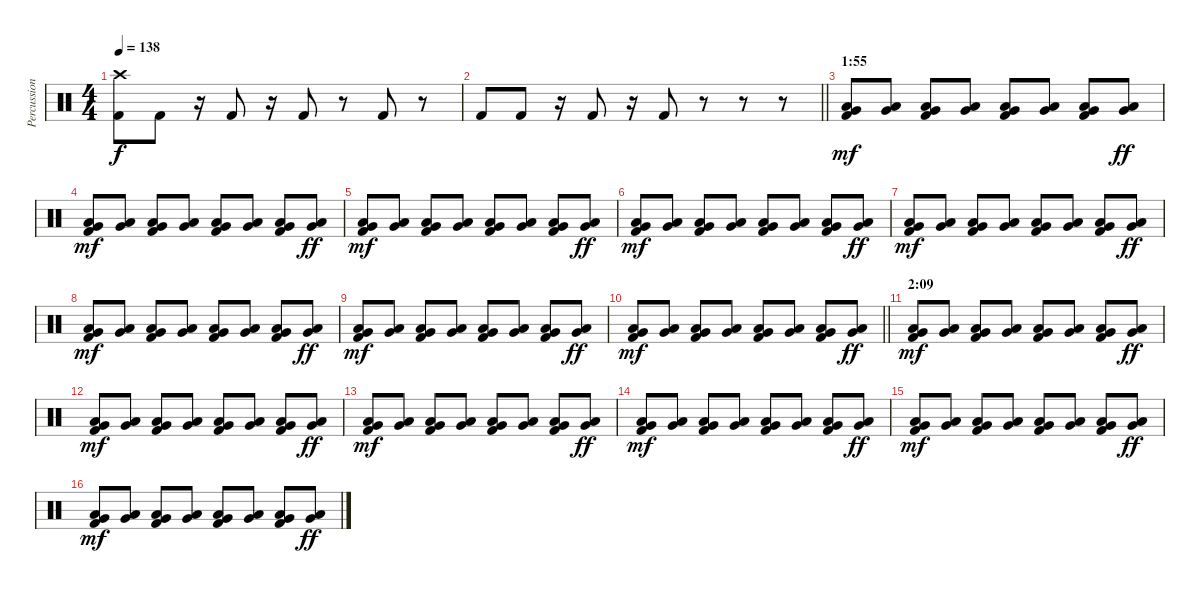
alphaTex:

\track ("Percussion" "Percussion") {instrument percussion}
\staff {score}
\articulation defaults
\ts (4 4)
\tempo 138
\clef neutral
\ks c
("Crash high (hit)" "Kick (hit) 2").8{dy f} "Kick (hit) 2".8 r.16 "Kick (hit) 2".8 r.16 "Kick (hit) 2".8 r.8 "Kick (hit) 2".8 r.8 |
\barLineRight lightlight "Kick (hit) 2".8 "Kick (hit) 2".8
r.16 "Kick (hit) 2".8 r.16 "Kick (hit) 2".8 r.8 r.8 r.8 |
\section ("" "1:55")
("Very Low Tom (hit)" "Low Floor Tom (hit)" "Kick (hit) 2").8{dy mf volume 6} ("Very Low Tom (hit)" "Low Floor Tom (hit)").8{volume 7} ("Very Low Tom (hit)" "Low Floor Tom (hit)" "Kick (hit) 2").8 ("Very Low Tom (hit)" "Low Floor Tom (hit)").8 ("Very Low Tom (hit)" "Low Floor Tom (hit)" "Kick (hit) 2").8 ("Very Low Tom (hit)" "Low Floor Tom (hit)").8 ("Very Low Tom (hit)" "Low Floor Tom (hit)" "Kick (hit) 2").8 ("Very Low Tom (hit)" "Low Floor Tom (hit)").8{dy ff} |
("Very Low Tom (hit)" "Low Floor Tom (hit)" "Kick (hit) 2").8{dy mf} ("Very Low Tom (hit)" "Low Floor Tom (hit)").8 ("Very Low Tom (hit)" "Low Floor Tom (hit)" "Kick (hit) 2").8 ("Very Low Tom (hit)" "Low Floor Tom (hit)").8 ("Very Low Tom (hit)" "Low Floor Tom (hit)" "Kick (hit) 2").8 ("Very Low Tom (hit)" "Low Floor Tom (hit)").8 ("Very Low Tom (hit)" "Low Floor Tom (hit)" "Kick (hit) 2").8 ("Very Low Tom (hit)" "Low Floor Tom (hit)").8{dy ff} |
("Very Low Tom (hit)" "Low Floor Tom (hit)" "Kick (hit) 2").8{dy mf} ("Very Low Tom (hit)" "Low Floor Tom (hit)").8 ("Very Low Tom (hit)" "Low Floor Tom (hit)" "Kick (hit) 2").8 ("Very Low Tom (hit)" "Low Floor Tom (hit)").8 ("Very Low Tom (hit)" "Low Floor Tom (hit)" "Kick (hit) 2").8 ("Very Low Tom (hit)" "Low Floor Tom (hit)").8 ("Very Low Tom (hit)" "Low Floor Tom (hit)" "Kick (hit) 2").8 ("Very Low Tom (hit)" "Low Floor Tom (hit)").8{dy ff} |
("Very Low Tom (hit)" "Low Floor Tom (hit)" "Kick (hit) 2").8{dy mf} ("Very Low Tom (hit)" "Low Floor Tom (hit)").8 ("Very Low Tom (hit)" "Low Floor Tom (hit)" "Kick (hit) 2").8 ("Very Low Tom (hit)" "Low Floor Tom (hit)").8 ("Very Low Tom (hit)" "Low Floor Tom (hit)" "Kick (hit) 2").8 ("Very Low Tom (hit)" "Low Floor Tom (hit)").8 ("Very Low Tom (hit)" "Low Floor Tom (hit)" "Kick (hit) 2").8 ("Very Low Tom (hit)" "Low Floor Tom (hit)").8{dy ff} |
("Very Low Tom (hit)" "Low Floor Tom (hit)" "Kick (hit) 2").8{dy mf} ("Very Low Tom (hit)" "Low Floor Tom (hit)").8 ("Very Low Tom (hit)" "Low Floor Tom (hit)" "Kick (hit) 2").8{volume 9} ("Very Low Tom (hit)" "Low Floor Tom (hit)").8 ("Very Low Tom (hit)" "Low Floor Tom (hit)" "Kick (hit) 2").8 ("Very Low Tom (hit)" "Low Floor Tom (hit)").8 ("Very Low Tom (hit)" "Low Floor Tom (hit)" "Kick (hit) 2").8 ("Very Low Tom (hit)" "Low Floor Tom (hit)").8{dy ff} |
("Very Low Tom (hit)" "Low Floor Tom (hit)" "Kick (hit) 2").8{dy mf} ("Very Low Tom (hit)" "Low Floor Tom (hit)").8 ("Very Low Tom (hit)" "Low Floor Tom (hit)" "Kick (hit) 2").8 ("Very Low Tom (hit)" "Low Floor Tom (hit)").8 ("Very Low Tom (hit)" "Low Floor Tom (hit)" "Kick (hit) 2").8 ("Very Low Tom (hit)" "Low Floor Tom (hit)").8 ("Very Low Tom (hit)" "Low Floor Tom (hit)" "Kick (hit) 2").8 ("Very Low Tom (hit)" "Low Floor Tom (hit)").8{dy ff} |
("Very Low Tom (hit)" "Low Floor Tom (hit)" "Kick (hit) 2").8{dy mf} ("Very Low Tom (hit)" "Low Floor Tom (hit)").8 ("Very Low Tom (hit)" "Low Floor Tom (hit)" "Kick (hit) 2").8 ("Very Low Tom (hit)" "Low Floor Tom (hit)").8 ("Very Low Tom (hit)" "Low Floor Tom (hit)" "Kick (hit) 2").8 ("Very Low Tom (hit)" "Low Floor Tom (hit)").8 ("Very Low Tom (hit)" "Low Floor Tom (hit)" "Kick (hit) 2").8 ("Very Low Tom (hit)" "Low Floor Tom (hit)").8{dy ff} |
\barLineRight lightlight
("Very Low Tom (hit)" "Low Floor Tom (hit)" "Kick (hit) 2").8{dy mf} ("Very Low Tom (hit)" "Low Floor Tom (hit)").8 ("Very Low Tom (hit)" "Low Floor Tom (hit)" "Kick (hit) 2").8 ("Very Low Tom (hit)" "Low Floor Tom (hit)").8 ("Very Low Tom (hit)" "Low Floor Tom (hit)" "Kick (hit) 2").8 ("Very Low Tom (hit)" "Low Floor Tom (hit)").8 ("Very Low Tom (hit)" "Low Floor Tom (hit)" "Kick (hit) 2").8 ("Very Low Tom (hit)" "Low Floor Tom (hit)").8{dy ff} |
\section ("" "2:09")
("Very Low Tom (hit)" "Low Floor Tom (hit)" "Kick (hit) 2").8{dy mf} ("Very Low Tom (hit)" "Low Floor Tom (hit)").8 ("Very Low Tom (hit)" "Low Floor Tom (hit)" "Kick (hit) 2").8 ("Very Low Tom (hit)" "Low Floor Tom (hit)").8{volume 12} ("Very Low Tom (hit)" "Low Floor Tom (hit)" "Kick (hit) 2").8 ("Very Low Tom (hit)" "Low Floor Tom (hit)").8 ("Very Low Tom (hit)" "Low Floor Tom (hit)" "Kick (hit) 2").8 ("Very Low Tom (hit)" "Low Floor Tom (hit)").8{dy ff} |
("Very Low Tom (hit)" "Low Floor Tom (hit)" "Kick (hit) 2").8{dy mf} ("Very Low Tom (hit)" "Low Floor Tom (hit)").8 ("Very Low Tom (hit)" "Low Floor Tom (hit)" "Kick (hit) 2").8 ("Very Low Tom (hit)" "Low Floor Tom (hit)").8 ("Very Low Tom (hit)" "Low Floor Tom (hit)" "Kick (hit) 2").8 ("Very Low Tom (hit)" "Low Floor Tom (hit)").8 ("Very Low Tom (hit)" "Low Floor Tom (hit)" "Kick (hit) 2").8 ("Very Low Tom (hit)" "Low Floor Tom (hit)").8{dy ff} |
("Very Low Tom (hit)" "Low Floor Tom (hit)" "Kick (hit) 2").8{dy mf} ("Very Low Tom (hit)" "Low Floor Tom (hit)").8 ("Very Low Tom (hit)" "Low Floor Tom (hit)" "Kick (hit) 2").8 ("Very Low Tom (hit)" "Low Floor Tom (hit)").8 ("Very Low Tom (hit)" "Low Floor Tom (hit)" "Kick (hit) 2").8 ("Very Low Tom (hit)" "Low Floor Tom (hit)").8 ("Very Low Tom (hit)" "Low Floor Tom (hit)" "Kick (hit) 2").8 ("Very Low Tom (hit)" "Low Floor Tom (hit)").8{dy ff} |
("Very Low Tom (hit)" "Low Floor Tom (hit)" "Kick (hit) 2").8{dy mf} ("Very Low Tom (hit)" "Low Floor Tom (hit)").8 ("Very Low Tom (hit)" "Low Floor Tom (hit)" "Kick (hit) 2").8 ("Very Low Tom (hit)" "Low Floor Tom (hit)").8 ("Very Low Tom (hit)" "Low Floor Tom (hit)" "Kick (hit) 2").8 ("Very Low Tom (hit)" "Low Floor Tom (hit)").8 ("Very Low Tom (hit)" "Low Floor Tom (hit)" "Kick (hit) 2").8 ("Very Low Tom (hit)" "Low Floor Tom (hit)").8{dy ff} |
("Very Low Tom (hit)" "Low Floor Tom (hit)" "Kick (hit) 2").8{dy mf} ("Very Low Tom (hit)" "Low Floor Tom (hit)").8 ("Very Low Tom (hit)" "Low Floor Tom (hit)" "Kick (hit) 2").8 ("Very Low Tom (hit)" "Low Floor Tom (hit)").8 ("Very Low Tom (hit)" "Low Floor Tom (hit)" "Kick (hit) 2").8 ("Very Low Tom (hit)" "Low Floor Tom (hit)").8 ("Very Low Tom (hit)" "Low Floor Tom (hit)" "Kick (hit) 2").8 ("Very Low Tom (hit)" "Low Floor Tom (hit)").8{dy ff} |
("Very Low Tom (hit)" "Low Floor Tom (hit)" "Kick (hit) 2").8{dy mf} ("Very Low Tom (hit)" "Low Floor Tom (hit)").8 ("Very Low Tom (hit)" "Low Floor Tom (hit)" "Kick (hit) 2").8 ("Very Low Tom (hit)" "Low Floor Tom (hit)").8 ("Very Low Tom (hit)" "Low Floor Tom (hit)" "Kick (hit) 2").8 ("Very Low Tom (hit)" "Low Floor Tom (hit)").8 ("Very Low Tom (hit)" "Low Floor Tom (hit)" "Kick (hit) 2").8 ("Very Low Tom (hit)" "Low Floor Tom (hit)").8{dy ff}
